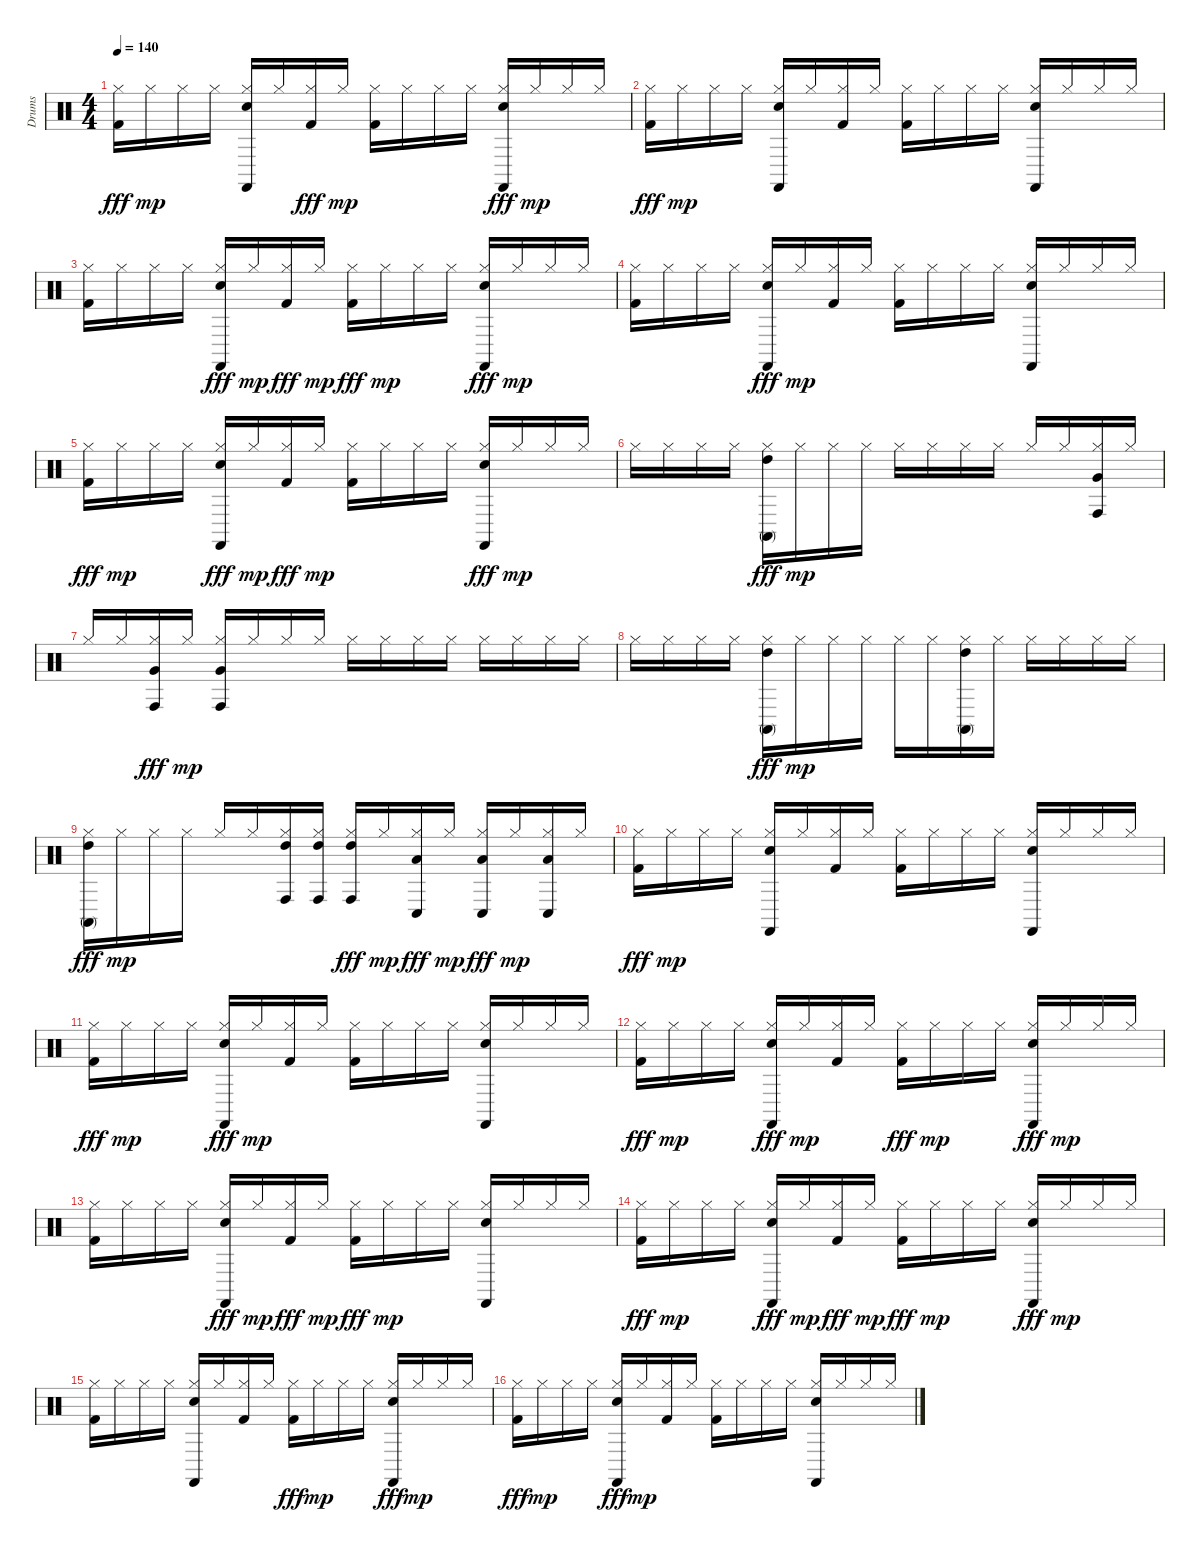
\track ("Drums" "Drums") {instrument percussion}
\staff {score}
\articulation defaults
\ts (4 4)
\tempo 140
\clef neutral
\ks c
("Hi-Hat (closed)" "Kick (hit) 2").16{dy fff} "Hi-Hat (closed)".16{dy mp} "Hi-Hat (closed)".16 "Hi-Hat (closed)".16 ("Snare (hit) 2" "Castanets (hit)" "Hi-Hat (closed)").16 "Hi-Hat (closed)".16 ("Hi-Hat (closed)" "Kick (hit) 2").16{dy fff} "Hi-Hat (closed)".16{dy mp} ("Kick (hit) 2" "Hi-Hat (closed)").16 "Hi-Hat (closed)".16 "Hi-Hat (closed)".16 "Hi-Hat (closed)".16 ("Hi-Hat (closed)" "Castanets (hit)" "Snare (hit) 2").16{dy fff} "Hi-Hat (closed)".16{dy mp} "Hi-Hat (closed)".16 "Hi-Hat (closed)".16 |
("Hi-Hat (closed)" "Kick (hit) 2").16{dy fff} "Hi-Hat (closed)".16{dy mp} "Hi-Hat (closed)".16 "Hi-Hat (closed)".16 ("Castanets (hit)" "Snare (hit) 2" "Hi-Hat (closed)").16 "Hi-Hat (closed)".16 ("Kick (hit) 2" "Hi-Hat (closed)").16 "Hi-Hat (closed)".16 ("Kick (hit) 2" "Hi-Hat (closed)").16 "Hi-Hat (closed)".16 "Hi-Hat (closed)".16 "Hi-Hat (closed)".16 ("Castanets (hit)" "Snare (hit) 2" "Hi-Hat (closed)").16 "Hi-Hat (closed)".16 "Hi-Hat (closed)".16 "Hi-Hat (closed)".16 |
("Kick (hit) 2" "Hi-Hat (closed)").16 "Hi-Hat (closed)".16 "Hi-Hat (closed)".16 "Hi-Hat (closed)".16 ("Castanets (hit)" "Hi-Hat (closed)" "Snare (hit) 2").16{dy fff} "Hi-Hat (closed)".16{dy mp} ("Hi-Hat (closed)" "Kick (hit) 2").16{dy fff} "Hi-Hat (closed)".16{dy mp} ("Hi-Hat (closed)" "Kick (hit) 2").16{dy fff} "Hi-Hat (closed)".16{dy mp} "Hi-Hat (closed)".16 "Hi-Hat (closed)".16 ("Castanets (hit)" "Hi-Hat (closed)" "Snare (hit) 2").16{dy fff} "Hi-Hat (closed)".16{dy mp} "Hi-Hat (closed)".16 "Hi-Hat (closed)".16 |
("Kick (hit) 2" "Hi-Hat (closed)").16 "Hi-Hat (closed)".16 "Hi-Hat (closed)".16 "Hi-Hat (closed)".16 ("Hi-Hat (closed)" "Castanets (hit)" "Snare (hit) 2").16{dy fff} "Hi-Hat (closed)".16{dy mp} ("Kick (hit) 2" "Hi-Hat (closed)").16 "Hi-Hat (closed)".16 ("Kick (hit) 2" "Hi-Hat (closed)").16 "Hi-Hat (closed)".16 "Hi-Hat (closed)".16 "Hi-Hat (closed)".16 ("Snare (hit) 2" "Castanets (hit)" "Hi-Hat (closed)").16 "Hi-Hat (closed)".16 "Hi-Hat (closed)".16 "Hi-Hat (closed)".16 |
("Hi-Hat (closed)" "Kick (hit) 2").16{dy fff} "Hi-Hat (closed)".16{dy mp} "Hi-Hat (closed)".16 "Hi-Hat (closed)".16 ("Hi-Hat (closed)" "Castanets (hit)" "Snare (hit) 2").16{dy fff} "Hi-Hat (closed)".16{dy mp} ("Hi-Hat (closed)" "Kick (hit) 2").16{dy fff} "Hi-Hat (closed)".16{dy mp} ("Kick (hit) 2" "Hi-Hat (closed)").16 "Hi-Hat (closed)".16 "Hi-Hat (closed)".16 "Hi-Hat (closed)".16 ("Hi-Hat (closed)" "Castanets (hit)" "Snare (hit) 2").16{dy fff} "Hi-Hat (closed)".16{dy mp} "Hi-Hat (closed)".16 "Hi-Hat (closed)".16 |
"Hi-Hat (closed)".16 "Hi-Hat (closed)".16 "Hi-Hat (closed)".16 "Hi-Hat (closed)".16 ("Hi-Hat (closed)" "Conga high (mute)" "High Tom (hit)").16{dy fff} "Hi-Hat (closed)".16{dy mp} "Hi-Hat (closed)".16 "Hi-Hat (closed)".16 "Hi-Hat (closed)".16 "Hi-Hat (closed)".16 "Hi-Hat (closed)".16 "Hi-Hat (closed)".16 "Hi-Hat (closed)".16 "Hi-Hat (closed)".16 ("Very Low Tom (hit)" "Conga high (hit)" "Hi-Hat (closed)").16 "Hi-Hat (closed)".16 |
"Hi-Hat (closed)".16 "Hi-Hat (closed)".16 ("Hi-Hat (closed)" "Conga high (hit)" "Very Low Tom (hit)").16{dy fff} "Hi-Hat (closed)".16{dy mp} ("Conga high (hit)" "Very Low Tom (hit)" "Hi-Hat (closed)").16 "Hi-Hat (closed)".16 "Hi-Hat (closed)".16 "Hi-Hat (closed)".16 "Hi-Hat (closed)".16 "Hi-Hat (closed)".16 "Hi-Hat (closed)".16 "Hi-Hat (closed)".16 "Hi-Hat (closed)".16 "Hi-Hat (closed)".16 "Hi-Hat (closed)".16 "Hi-Hat (closed)".16 |
"Hi-Hat (closed)".16 "Hi-Hat (closed)".16 "Hi-Hat (closed)".16 "Hi-Hat (closed)".16 ("Hi-Hat (closed)" "High Tom (hit)" "Conga high (mute)").16{dy fff} "Hi-Hat (closed)".16{dy mp} "Hi-Hat (closed)".16 "Hi-Hat (closed)".16 "Hi-Hat (closed)".16 "Hi-Hat (closed)".16 ("High Tom (hit)" "Conga high (mute)" "Hi-Hat (closed)").16 "Hi-Hat (closed)".16 "Hi-Hat (closed)".16 "Hi-Hat (closed)".16 "Hi-Hat (closed)".16 "Hi-Hat (closed)".16 |
("Hi-Hat (closed)" "High Tom (hit)" "Conga high (mute)").16{dy fff} "Hi-Hat (closed)".16{dy mp} "Hi-Hat (closed)".16 "Hi-Hat (closed)".16 "Hi-Hat (closed)".16 "Hi-Hat (closed)".16 ("High Tom (hit)" "Conga high (hit)" "Hi-Hat (closed)").16 ("High Tom (hit)" "Conga high (hit)" "Hi-Hat (closed)").16 ("Hi-Hat (closed)" "Conga high (hit)" "High Tom (hit)").16{dy fff} "Hi-Hat (closed)".16{dy mp} ("Low Tom (hit)" "Hi-Hat (closed)" "Conga low (hit)").16{dy fff} "Hi-Hat (closed)".16{dy mp} ("Conga low (hit)" "Hi-Hat (closed)" "Low Tom (hit)").16{dy fff} "Hi-Hat (closed)".16{dy mp} ("Conga low (hit)" "Low Tom (hit)" "Hi-Hat (closed)").16 "Hi-Hat (closed)".16 |
("Hi-Hat (closed)" "Kick (hit) 2").16{dy fff} "Hi-Hat (closed)".16{dy mp} "Hi-Hat (closed)".16 "Hi-Hat (closed)".16 ("Castanets (hit)" "Snare (hit) 2" "Hi-Hat (closed)").16 "Hi-Hat (closed)".16 ("Kick (hit) 2" "Hi-Hat (closed)").16 "Hi-Hat (closed)".16 ("Kick (hit) 2" "Hi-Hat (closed)").16 "Hi-Hat (closed)".16 "Hi-Hat (closed)".16 "Hi-Hat (closed)".16 ("Snare (hit) 2" "Castanets (hit)" "Hi-Hat (closed)").16 "Hi-Hat (closed)".16 "Hi-Hat (closed)".16 "Hi-Hat (closed)".16 |
("Hi-Hat (closed)" "Kick (hit) 2").16{dy fff} "Hi-Hat (closed)".16{dy mp} "Hi-Hat (closed)".16 "Hi-Hat (closed)".16 ("Hi-Hat (closed)" "Snare (hit) 2" "Castanets (hit)").16{dy fff} "Hi-Hat (closed)".16{dy mp} ("Kick (hit) 2" "Hi-Hat (closed)").16 "Hi-Hat (closed)".16 ("Kick (hit) 2" "Hi-Hat (closed)").16 "Hi-Hat (closed)".16 "Hi-Hat (closed)".16 "Hi-Hat (closed)".16 ("Snare (hit) 2" "Castanets (hit)" "Hi-Hat (closed)").16 "Hi-Hat (closed)".16 "Hi-Hat (closed)".16 "Hi-Hat (closed)".16 |
("Hi-Hat (closed)" "Kick (hit) 2").16{dy fff} "Hi-Hat (closed)".16{dy mp} "Hi-Hat (closed)".16 "Hi-Hat (closed)".16 ("Hi-Hat (closed)" "Snare (hit) 2" "Castanets (hit)").16{dy fff} "Hi-Hat (closed)".16{dy mp} ("Kick (hit) 2" "Hi-Hat (closed)").16 "Hi-Hat (closed)".16 ("Hi-Hat (closed)" "Kick (hit) 2").16{dy fff} "Hi-Hat (closed)".16{dy mp} "Hi-Hat (closed)".16 "Hi-Hat (closed)".16 ("Hi-Hat (closed)" "Snare (hit) 2" "Castanets (hit)").16{dy fff} "Hi-Hat (closed)".16{dy mp} "Hi-Hat (closed)".16 "Hi-Hat (closed)".16 |
("Kick (hit) 2" "Hi-Hat (closed)").16 "Hi-Hat (closed)".16 "Hi-Hat (closed)".16 "Hi-Hat (closed)".16 ("Hi-Hat (closed)" "Castanets (hit)" "Snare (hit) 2").16{dy fff} "Hi-Hat (closed)".16{dy mp} ("Hi-Hat (closed)" "Kick (hit) 2").16{dy fff} "Hi-Hat (closed)".16{dy mp} ("Hi-Hat (closed)" "Kick (hit) 2").16{dy fff} "Hi-Hat (closed)".16{dy mp} "Hi-Hat (closed)".16 "Hi-Hat (closed)".16 ("Snare (hit) 2" "Castanets (hit)" "Hi-Hat (closed)").16 "Hi-Hat (closed)".16 "Hi-Hat (closed)".16 "Hi-Hat (closed)".16 |
("Hi-Hat (closed)" "Kick (hit) 2").16{dy fff} "Hi-Hat (closed)".16{dy mp} "Hi-Hat (closed)".16 "Hi-Hat (closed)".16 ("Hi-Hat (closed)" "Castanets (hit)" "Snare (hit) 2").16{dy fff} "Hi-Hat (closed)".16{dy mp} ("Hi-Hat (closed)" "Kick (hit) 2").16{dy fff} "Hi-Hat (closed)".16{dy mp} ("Hi-Hat (closed)" "Kick (hit) 2").16{dy fff} "Hi-Hat (closed)".16{dy mp} "Hi-Hat (closed)".16 "Hi-Hat (closed)".16 ("Hi-Hat (closed)" "Snare (hit) 2" "Castanets (hit)").16{dy fff} "Hi-Hat (closed)".16{dy mp} "Hi-Hat (closed)".16 "Hi-Hat (closed)".16 |
("Kick (hit) 2" "Hi-Hat (closed)").16 "Hi-Hat (closed)".16 "Hi-Hat (closed)".16 "Hi-Hat (closed)".16 ("Snare (hit) 2" "Castanets (hit)" "Hi-Hat (closed)").16 "Hi-Hat (closed)".16 ("Kick (hit) 2" "Hi-Hat (closed)").16 "Hi-Hat (closed)".16 ("Hi-Hat (closed)" "Kick (hit) 2").16{dy fff} "Hi-Hat (closed)".16{dy mp} "Hi-Hat (closed)".16 "Hi-Hat (closed)".16 ("Snare (hit) 2" "Hi-Hat (closed)" "Castanets (hit)").16{dy fff} "Hi-Hat (closed)".16{dy mp} "Hi-Hat (closed)".16 "Hi-Hat (closed)".16 |
("Hi-Hat (closed)" "Kick (hit) 2").16{dy fff} "Hi-Hat (closed)".16{dy mp} "Hi-Hat (closed)".16 "Hi-Hat (closed)".16 ("Castanets (hit)" "Hi-Hat (closed)" "Snare (hit) 2").16{dy fff} "Hi-Hat (closed)".16{dy mp} ("Kick (hit) 2" "Hi-Hat (closed)").16 "Hi-Hat (closed)".16 ("Kick (hit) 2" "Hi-Hat (closed)").16 "Hi-Hat (closed)".16 "Hi-Hat (closed)".16 "Hi-Hat (closed)".16 ("Castanets (hit)" "Snare (hit) 2" "Hi-Hat (closed)").16 "Hi-Hat (closed)".16 "Hi-Hat (closed)".16 "Hi-Hat (closed)".16
